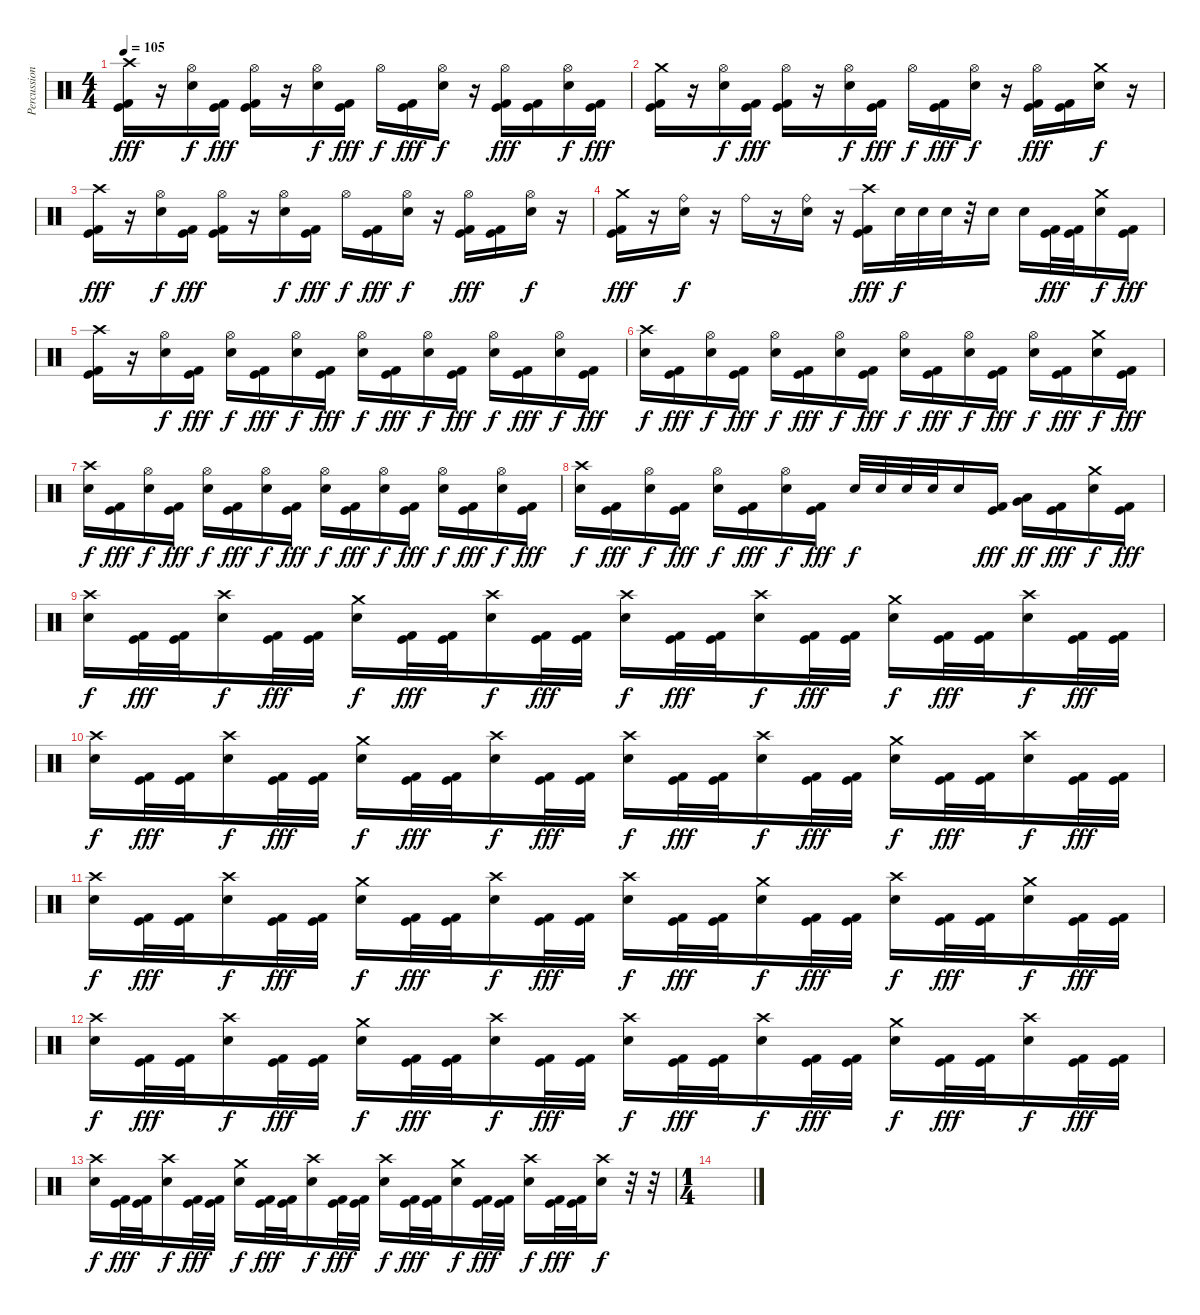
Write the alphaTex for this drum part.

\track ("Percussion" "Percussion") {instrument percussion}
\staff {score}
\articulation defaults
\ts (4 4)
\tempo 105
\clef neutral
\ks c
("Crash high (hit)" "Kick (hit)" "Kick (hit) 2").16{dy fff} r.16 ("Hi-Hat (open)" "Electric Snare (hit)").16{dy f} ("Kick (hit)" "Kick (hit) 2").16{dy fff} ("Hi-Hat (open)" "Kick (hit)" "Kick (hit) 2").16 r.16 ("Hi-Hat (open)" "Electric Snare (hit)").16{dy f} ("Kick (hit)" "Kick (hit) 2").16{dy fff} "Hi-Hat (open)".16{dy f} ("Kick (hit)" "Kick (hit) 2").16{dy fff} ("Hi-Hat (open)" "Electric Snare (hit)").16{dy f} r.16 ("Hi-Hat (open)" "Kick (hit)" "Kick (hit) 2").16{dy fff} ("Kick (hit)" "Kick (hit) 2").16 ("Hi-Hat (open)" "Electric Snare (hit)").16{dy f} ("Kick (hit)" "Kick (hit) 2").16{dy fff} |
("Crash medium (hit)" "Kick (hit)" "Kick (hit) 2").16 r.16 ("Hi-Hat (open)" "Electric Snare (hit)").16{dy f} ("Kick (hit)" "Kick (hit) 2").16{dy fff} ("Hi-Hat (open)" "Kick (hit)" "Kick (hit) 2").16 r.16 ("Hi-Hat (open)" "Electric Snare (hit)").16{dy f} ("Kick (hit)" "Kick (hit) 2").16{dy fff} "Hi-Hat (open)".16{dy f} ("Kick (hit)" "Kick (hit) 2").16{dy fff} ("Hi-Hat (open)" "Electric Snare (hit)").16{dy f} r.16 ("Hi-Hat (open)" "Kick (hit)" "Kick (hit) 2").16{dy fff} ("Kick (hit)" "Kick (hit) 2").16 ("Crash medium (hit)" "Electric Snare (hit)").16{dy f} r.16 |
("Crash high (hit)" "Kick (hit)" "Kick (hit) 2").16{dy fff} r.16 ("Hi-Hat (open)" "Electric Snare (hit)").16{dy f} ("Kick (hit)" "Kick (hit) 2").16{dy fff} ("Hi-Hat (open)" "Kick (hit)" "Kick (hit) 2").16 r.16 ("Hi-Hat (open)" "Electric Snare (hit)").16{dy f} ("Kick (hit)" "Kick (hit) 2").16{dy fff} "Hi-Hat (open)".16{dy f} ("Kick (hit)" "Kick (hit) 2").16{dy fff} ("Hi-Hat (open)" "Electric Snare (hit)").16{dy f} r.16 ("Hi-Hat (open)" "Kick (hit)" "Kick (hit) 2").16{dy fff} ("Kick (hit)" "Kick (hit) 2").16 ("Hi-Hat (open)" "Electric Snare (hit)").16{dy f} r.16 |
("Crash medium (hit)" "Kick (hit)" "Kick (hit) 2").16{dy fff} r.16 ("Ride (bell)" "Electric Snare (hit)").16{dy f} r.16 "Ride (bell)".16 r.16 ("Ride (bell)" "Electric Snare (hit)").16 r.16 ("Crash high (hit)" "Kick (hit)" "Kick (hit) 2").16{dy fff} "Electric Snare (hit)".32{dy f} "Electric Snare (hit)".32 "Electric Snare (hit)".32 r.32 "Electric Snare (hit)".16 "Electric Snare (hit)".16 ("Kick (hit)" "Kick (hit) 2").32{dy fff} ("Kick (hit)" "Kick (hit) 2").32 ("Crash medium (hit)" "Electric Snare (hit)").16{dy f} ("Kick (hit)" "Kick (hit) 2").16{dy fff} |
("Crash high (hit)" "Kick (hit)" "Kick (hit) 2").16 r.16 ("Hi-Hat (open)" "Electric Snare (hit)").16{dy f} ("Kick (hit)" "Kick (hit) 2").16{dy fff} ("Hi-Hat (open)" "Electric Snare (hit)").16{dy f} ("Kick (hit)" "Kick (hit) 2").16{dy fff} ("Hi-Hat (open)" "Electric Snare (hit)").16{dy f} ("Kick (hit)" "Kick (hit) 2").16{dy fff} ("Hi-Hat (open)" "Electric Snare (hit)").16{dy f} ("Kick (hit)" "Kick (hit) 2").16{dy fff} ("Hi-Hat (open)" "Electric Snare (hit)").16{dy f} ("Kick (hit)" "Kick (hit) 2").16{dy fff} ("Hi-Hat (open)" "Electric Snare (hit)").16{dy f} ("Kick (hit)" "Kick (hit) 2").16{dy fff} ("Hi-Hat (open)" "Electric Snare (hit)").16{dy f} ("Kick (hit)" "Kick (hit) 2").16{dy fff} |
("Crash high (hit)" "Electric Snare (hit)").16{dy f} ("Kick (hit)" "Kick (hit) 2").16{dy fff} ("Hi-Hat (open)" "Electric Snare (hit)").16{dy f} ("Kick (hit)" "Kick (hit) 2").16{dy fff} ("Hi-Hat (open)" "Electric Snare (hit)").16{dy f} ("Kick (hit)" "Kick (hit) 2").16{dy fff} ("Hi-Hat (open)" "Electric Snare (hit)").16{dy f} ("Kick (hit)" "Kick (hit) 2").16{dy fff} ("Hi-Hat (open)" "Electric Snare (hit)").16{dy f} ("Kick (hit)" "Kick (hit) 2").16{dy fff} ("Hi-Hat (open)" "Electric Snare (hit)").16{dy f} ("Kick (hit)" "Kick (hit) 2").16{dy fff} ("Hi-Hat (open)" "Electric Snare (hit)").16{dy f} ("Kick (hit)" "Kick (hit) 2").16{dy fff} ("Crash medium (hit)" "Electric Snare (hit)").16{dy f} ("Kick (hit)" "Kick (hit) 2").16{dy fff} |
("Crash high (hit)" "Electric Snare (hit)").16{dy f} ("Kick (hit)" "Kick (hit) 2").16{dy fff} ("Hi-Hat (open)" "Electric Snare (hit)").16{dy f} ("Kick (hit)" "Kick (hit) 2").16{dy fff} ("Hi-Hat (open)" "Electric Snare (hit)").16{dy f} ("Kick (hit)" "Kick (hit) 2").16{dy fff} ("Hi-Hat (open)" "Electric Snare (hit)").16{dy f} ("Kick (hit)" "Kick (hit) 2").16{dy fff} ("Hi-Hat (open)" "Electric Snare (hit)").16{dy f} ("Kick (hit)" "Kick (hit) 2").16{dy fff} ("Hi-Hat (open)" "Electric Snare (hit)").16{dy f} ("Kick (hit)" "Kick (hit) 2").16{dy fff} ("Hi-Hat (open)" "Electric Snare (hit)").16{dy f} ("Kick (hit)" "Kick (hit) 2").16{dy fff} ("Hi-Hat (open)" "Electric Snare (hit)").16{dy f} ("Kick (hit)" "Kick (hit) 2").16{dy fff} |
("Crash high (hit)" "Electric Snare (hit)").16{dy f} ("Kick (hit)" "Kick (hit) 2").16{dy fff} ("Hi-Hat (open)" "Electric Snare (hit)").16{dy f} ("Kick (hit)" "Kick (hit) 2").16{dy fff} ("Hi-Hat (open)" "Electric Snare (hit)").16{dy f} ("Kick (hit)" "Kick (hit) 2").16{dy fff} ("Hi-Hat (open)" "Electric Snare (hit)").16{dy f} ("Kick (hit)" "Kick (hit) 2").16{dy fff} "Electric Snare (hit)".32{dy f} "Electric Snare (hit)".32 "Electric Snare (hit)".32 "Electric Snare (hit)".32 "Electric Snare (hit)".16 ("Kick (hit)" "Kick (hit) 2").16{dy fff} ("Very Low Tom (hit)" "Low Tom (hit)").16{bu 60 dy ff} ("Kick (hit)" "Kick (hit) 2").16{dy fff} ("Crash medium (hit)" "Electric Snare (hit)").16{dy f} ("Kick (hit)" "Kick (hit) 2").16{dy fff} |
("Crash high (hit)" "Electric Snare (hit)").16{dy f} ("Kick (hit)" "Kick (hit) 2").32{dy fff} ("Kick (hit)" "Kick (hit) 2").32 ("Crash high (hit)" "Electric Snare (hit)").16{dy f} ("Kick (hit)" "Kick (hit) 2").32{dy fff} ("Kick (hit)" "Kick (hit) 2").32 ("Crash medium (hit)" "Electric Snare (hit)").16{dy f} ("Kick (hit)" "Kick (hit) 2").32{dy fff} ("Kick (hit)" "Kick (hit) 2").32 ("Crash high (hit)" "Electric Snare (hit)").16{dy f} ("Kick (hit)" "Kick (hit) 2").32{dy fff} ("Kick (hit)" "Kick (hit) 2").32 ("Crash high (hit)" "Electric Snare (hit)").16{dy f} ("Kick (hit)" "Kick (hit) 2").32{dy fff} ("Kick (hit)" "Kick (hit) 2").32 ("Crash high (hit)" "Electric Snare (hit)").16{dy f} ("Kick (hit)" "Kick (hit) 2").32{dy fff} ("Kick (hit)" "Kick (hit) 2").32 ("Crash medium (hit)" "Electric Snare (hit)").16{dy f} ("Kick (hit)" "Kick (hit) 2").32{dy fff} ("Kick (hit)" "Kick (hit) 2").32 ("Crash high (hit)" "Electric Snare (hit)").16{dy f} ("Kick (hit)" "Kick (hit) 2").32{dy fff} ("Kick (hit)" "Kick (hit) 2").32 |
("Crash high (hit)" "Electric Snare (hit)").16{dy f} ("Kick (hit)" "Kick (hit) 2").32{dy fff} ("Kick (hit)" "Kick (hit) 2").32 ("Crash high (hit)" "Electric Snare (hit)").16{dy f} ("Kick (hit)" "Kick (hit) 2").32{dy fff} ("Kick (hit)" "Kick (hit) 2").32 ("Crash medium (hit)" "Electric Snare (hit)").16{dy f} ("Kick (hit)" "Kick (hit) 2").32{dy fff} ("Kick (hit)" "Kick (hit) 2").32 ("Crash high (hit)" "Electric Snare (hit)").16{dy f} ("Kick (hit)" "Kick (hit) 2").32{dy fff} ("Kick (hit)" "Kick (hit) 2").32 ("Crash high (hit)" "Electric Snare (hit)").16{dy f} ("Kick (hit)" "Kick (hit) 2").32{dy fff} ("Kick (hit)" "Kick (hit) 2").32 ("Crash high (hit)" "Electric Snare (hit)").16{dy f} ("Kick (hit)" "Kick (hit) 2").32{dy fff} ("Kick (hit)" "Kick (hit) 2").32 ("Crash medium (hit)" "Electric Snare (hit)").16{dy f} ("Kick (hit)" "Kick (hit) 2").32{dy fff} ("Kick (hit)" "Kick (hit) 2").32 ("Crash high (hit)" "Electric Snare (hit)").16{dy f} ("Kick (hit)" "Kick (hit) 2").32{dy fff} ("Kick (hit)" "Kick (hit) 2").32 |
("Crash high (hit)" "Electric Snare (hit)").16{dy f} ("Kick (hit)" "Kick (hit) 2").32{dy fff} ("Kick (hit)" "Kick (hit) 2").32 ("Crash high (hit)" "Electric Snare (hit)").16{dy f} ("Kick (hit)" "Kick (hit) 2").32{dy fff} ("Kick (hit)" "Kick (hit) 2").32 ("Crash medium (hit)" "Electric Snare (hit)").16{dy f} ("Kick (hit)" "Kick (hit) 2").32{dy fff} ("Kick (hit)" "Kick (hit) 2").32 ("Crash high (hit)" "Electric Snare (hit)").16{dy f} ("Kick (hit)" "Kick (hit) 2").32{dy fff} ("Kick (hit)" "Kick (hit) 2").32 ("Crash high (hit)" "Electric Snare (hit)").16{dy f} ("Kick (hit)" "Kick (hit) 2").32{dy fff} ("Kick (hit)" "Kick (hit) 2").32 ("Crash medium (hit)" "Electric Snare (hit)").16{dy f} ("Kick (hit)" "Kick (hit) 2").32{dy fff} ("Kick (hit)" "Kick (hit) 2").32 ("Crash high (hit)" "Electric Snare (hit)").16{dy f} ("Kick (hit)" "Kick (hit) 2").32{dy fff} ("Kick (hit)" "Kick (hit) 2").32 ("Crash medium (hit)" "Electric Snare (hit)").16{dy f} ("Kick (hit)" "Kick (hit) 2").32{dy fff} ("Kick (hit)" "Kick (hit) 2").32 |
("Crash high (hit)" "Electric Snare (hit)").16{dy f} ("Kick (hit)" "Kick (hit) 2").32{dy fff} ("Kick (hit)" "Kick (hit) 2").32 ("Crash high (hit)" "Electric Snare (hit)").16{dy f} ("Kick (hit)" "Kick (hit) 2").32{dy fff} ("Kick (hit)" "Kick (hit) 2").32 ("Crash medium (hit)" "Electric Snare (hit)").16{dy f} ("Kick (hit)" "Kick (hit) 2").32{dy fff} ("Kick (hit)" "Kick (hit) 2").32 ("Crash high (hit)" "Electric Snare (hit)").16{dy f} ("Kick (hit)" "Kick (hit) 2").32{dy fff} ("Kick (hit)" "Kick (hit) 2").32 ("Crash high (hit)" "Electric Snare (hit)").16{dy f} ("Kick (hit)" "Kick (hit) 2").32{dy fff} ("Kick (hit)" "Kick (hit) 2").32 ("Crash high (hit)" "Electric Snare (hit)").16{dy f} ("Kick (hit)" "Kick (hit) 2").32{dy fff} ("Kick (hit)" "Kick (hit) 2").32 ("Crash medium (hit)" "Electric Snare (hit)").16{dy f} ("Kick (hit)" "Kick (hit) 2").32{dy fff} ("Kick (hit)" "Kick (hit) 2").32 ("Crash high (hit)" "Electric Snare (hit)").16{dy f} ("Kick (hit)" "Kick (hit) 2").32{dy fff} ("Kick (hit)" "Kick (hit) 2").32 |
("Crash high (hit)" "Electric Snare (hit)").16{dy f} ("Kick (hit)" "Kick (hit) 2").32{dy fff} ("Kick (hit)" "Kick (hit) 2").32 ("Crash high (hit)" "Electric Snare (hit)").16{dy f} ("Kick (hit)" "Kick (hit) 2").32{dy fff} ("Kick (hit)" "Kick (hit) 2").32 ("Crash medium (hit)" "Electric Snare (hit)").16{dy f} ("Kick (hit)" "Kick (hit) 2").32{dy fff} ("Kick (hit)" "Kick (hit) 2").32 ("Crash high (hit)" "Electric Snare (hit)").16{dy f} ("Kick (hit)" "Kick (hit) 2").32{dy fff} ("Kick (hit)" "Kick (hit) 2").32 ("Crash high (hit)" "Electric Snare (hit)").16{dy f} ("Kick (hit)" "Kick (hit) 2").32{dy fff} ("Kick (hit)" "Kick (hit) 2").32 ("Crash medium (hit)" "Electric Snare (hit)").16{dy f} ("Kick (hit)" "Kick (hit) 2").32{dy fff} ("Kick (hit)" "Kick (hit) 2").32 ("Crash high (hit)" "Electric Snare (hit)").16{dy f} ("Kick (hit)" "Kick (hit) 2").32{dy fff} ("Kick (hit)" "Kick (hit) 2").32 ("Crash high (hit)" "Electric Snare (hit)").16{dy f} r.32 r.32 |
\ts (1 4)
